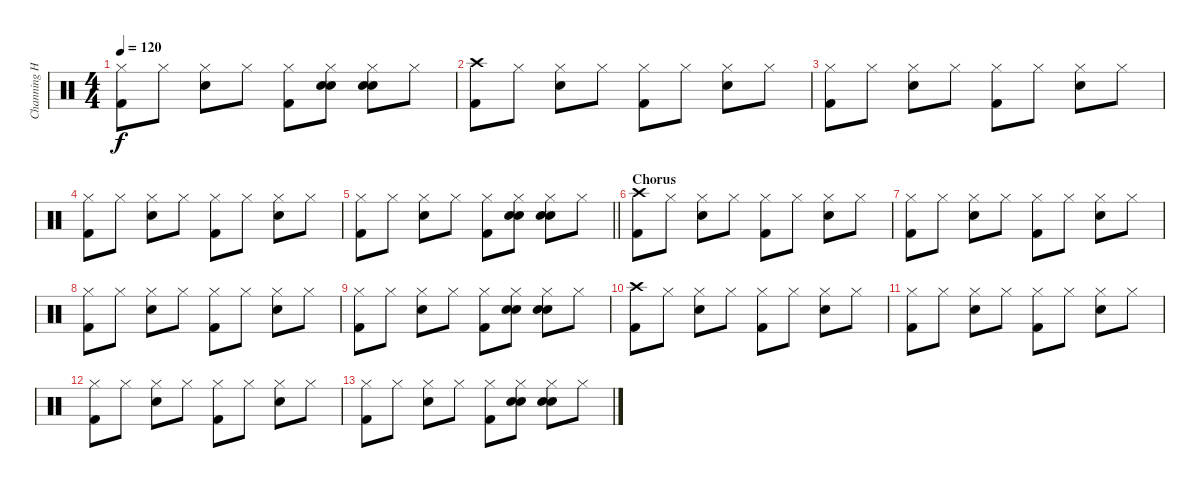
\track ("Channing Holmes' drums" "Channing H") {instrument percussion}
\staff {score}
\articulation defaults
\ts (4 4)
\tempo 120
\clef neutral
\ks c
("Hi-Hat (closed)" "Kick (hit) 2").8{dy f} "Hi-Hat (closed)".8 ("Hi-Hat (closed)" "Snare (hit) 2").8 "Hi-Hat (closed)".8 ("Hi-Hat (closed)" "Kick (hit) 2").8 ("Hand Clap (hit)" "Hi-Hat (closed)" "Snare (hit) 2").8 ("Hand Clap (hit)" "Hi-Hat (closed)" "Snare (hit) 2").8 "Hi-Hat (closed)".8 |
("Crash high (hit)" "Kick (hit) 2").8 "Hi-Hat (closed)".8 ("Hi-Hat (closed)" "Snare (hit) 2").8 "Hi-Hat (closed)".8 ("Hi-Hat (closed)" "Kick (hit) 2").8 "Hi-Hat (closed)".8 ("Hi-Hat (closed)" "Snare (hit) 2").8 "Hi-Hat (closed)".8 |
("Hi-Hat (closed)" "Kick (hit) 2").8 "Hi-Hat (closed)".8 ("Hi-Hat (closed)" "Snare (hit) 2").8 "Hi-Hat (closed)".8 ("Hi-Hat (closed)" "Kick (hit) 2").8 "Hi-Hat (closed)".8 ("Hi-Hat (closed)" "Snare (hit) 2").8 "Hi-Hat (closed)".8 |
("Hi-Hat (closed)" "Kick (hit) 2").8 "Hi-Hat (closed)".8 ("Hi-Hat (closed)" "Snare (hit) 2").8 "Hi-Hat (closed)".8 ("Hi-Hat (closed)" "Kick (hit) 2").8 "Hi-Hat (closed)".8 ("Hi-Hat (closed)" "Snare (hit) 2").8 "Hi-Hat (closed)".8 |
\barLineRight lightlight
("Hi-Hat (closed)" "Kick (hit) 2").8 "Hi-Hat (closed)".8 ("Hi-Hat (closed)" "Snare (hit) 2").8 "Hi-Hat (closed)".8 ("Hi-Hat (closed)" "Kick (hit) 2").8 ("Hand Clap (hit)" "Hi-Hat (closed)" "Snare (hit) 2").8 ("Hand Clap (hit)" "Hi-Hat (closed)" "Snare (hit) 2").8 "Hi-Hat (closed)".8 |
\section ("" "Chorus")
("Crash high (hit)" "Kick (hit) 2").8 "Hi-Hat (closed)".8 ("Hi-Hat (closed)" "Snare (hit) 2").8 "Hi-Hat (closed)".8 ("Hi-Hat (closed)" "Kick (hit) 2").8 "Hi-Hat (closed)".8 ("Hi-Hat (closed)" "Snare (hit) 2").8 "Hi-Hat (closed)".8 |
("Hi-Hat (closed)" "Kick (hit) 2").8 "Hi-Hat (closed)".8 ("Hi-Hat (closed)" "Snare (hit) 2").8 "Hi-Hat (closed)".8 ("Hi-Hat (closed)" "Kick (hit) 2").8 "Hi-Hat (closed)".8 ("Hi-Hat (closed)" "Snare (hit) 2").8 "Hi-Hat (closed)".8 |
("Hi-Hat (closed)" "Kick (hit) 2").8 "Hi-Hat (closed)".8 ("Hi-Hat (closed)" "Snare (hit) 2").8 "Hi-Hat (closed)".8 ("Hi-Hat (closed)" "Kick (hit) 2").8 "Hi-Hat (closed)".8 ("Hi-Hat (closed)" "Snare (hit) 2").8 "Hi-Hat (closed)".8 |
("Hi-Hat (closed)" "Kick (hit) 2").8 "Hi-Hat (closed)".8 ("Hi-Hat (closed)" "Snare (hit) 2").8 "Hi-Hat (closed)".8 ("Hi-Hat (closed)" "Kick (hit) 2").8 ("Hand Clap (hit)" "Hi-Hat (closed)" "Snare (hit) 2").8 ("Hand Clap (hit)" "Hi-Hat (closed)" "Snare (hit) 2").8 "Hi-Hat (closed)".8 |
("Crash high (hit)" "Kick (hit) 2").8 "Hi-Hat (closed)".8 ("Hi-Hat (closed)" "Snare (hit) 2").8 "Hi-Hat (closed)".8 ("Hi-Hat (closed)" "Kick (hit) 2").8 "Hi-Hat (closed)".8 ("Hi-Hat (closed)" "Snare (hit) 2").8 "Hi-Hat (closed)".8 |
("Hi-Hat (closed)" "Kick (hit) 2").8 "Hi-Hat (closed)".8 ("Hi-Hat (closed)" "Snare (hit) 2").8 "Hi-Hat (closed)".8 ("Hi-Hat (closed)" "Kick (hit) 2").8 "Hi-Hat (closed)".8 ("Hi-Hat (closed)" "Snare (hit) 2").8 "Hi-Hat (closed)".8 |
("Hi-Hat (closed)" "Kick (hit) 2").8 "Hi-Hat (closed)".8 ("Hi-Hat (closed)" "Snare (hit) 2").8 "Hi-Hat (closed)".8 ("Hi-Hat (closed)" "Kick (hit) 2").8 "Hi-Hat (closed)".8 ("Hi-Hat (closed)" "Snare (hit) 2").8 "Hi-Hat (closed)".8 |
("Hi-Hat (closed)" "Kick (hit) 2").8 "Hi-Hat (closed)".8 ("Hi-Hat (closed)" "Snare (hit) 2").8 "Hi-Hat (closed)".8 ("Hi-Hat (closed)" "Kick (hit) 2").8 ("Hand Clap (hit)" "Hi-Hat (closed)" "Snare (hit) 2").8 ("Hand Clap (hit)" "Hi-Hat (closed)" "Snare (hit) 2").8 "Hi-Hat (closed)".8
